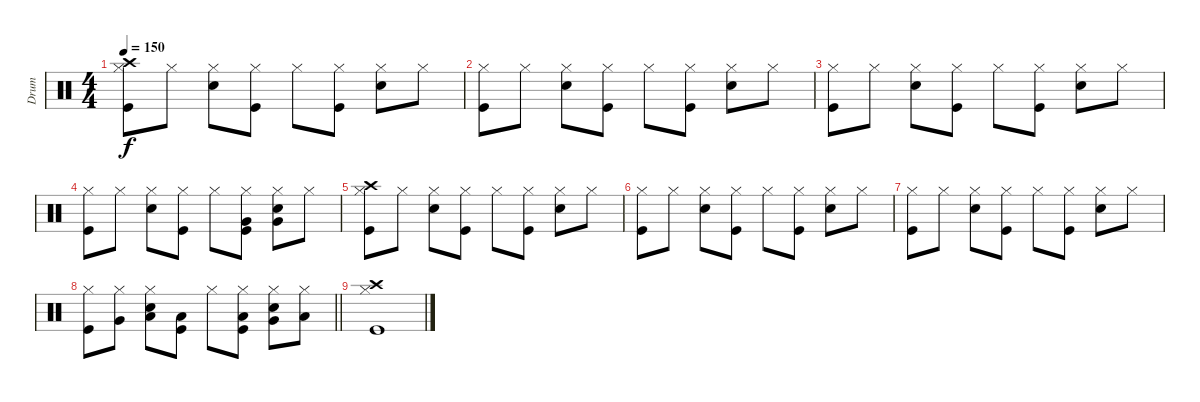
\track ("Drum" "Drum") {instrument percussion}
\staff {score}
\articulation defaults
\ts (4 4)
\tempo 150
\clef neutral
\ks c
("Kick (hit)" "Hi-Hat (closed)" "Crash high (hit)").8{dy f} "Hi-Hat (closed)".8 ("Snare (hit) 2" "Hi-Hat (closed)").8 ("Kick (hit)" "Hi-Hat (closed)").8 "Hi-Hat (closed)".8 ("Kick (hit)" "Hi-Hat (closed)").8 ("Snare (hit) 2" "Hi-Hat (closed)").8 "Hi-Hat (closed)".8 |
("Kick (hit)" "Hi-Hat (closed)").8 "Hi-Hat (closed)".8 ("Snare (hit) 2" "Hi-Hat (closed)").8 ("Kick (hit)" "Hi-Hat (closed)").8 "Hi-Hat (closed)".8 ("Kick (hit)" "Hi-Hat (closed)").8 ("Snare (hit) 2" "Hi-Hat (closed)").8 "Hi-Hat (closed)".8 |
("Kick (hit)" "Hi-Hat (closed)").8 "Hi-Hat (closed)".8 ("Snare (hit) 2" "Hi-Hat (closed)").8 ("Kick (hit)" "Hi-Hat (closed)").8 "Hi-Hat (closed)".8 ("Kick (hit)" "Hi-Hat (closed)").8 ("Snare (hit) 2" "Hi-Hat (closed)").8 "Hi-Hat (closed)".8 |
("Kick (hit)" "Hi-Hat (closed)").8 "Hi-Hat (closed)".8 ("Snare (hit) 2" "Hi-Hat (closed)").8 ("Kick (hit)" "Hi-Hat (closed)").8 "Hi-Hat (closed)".8 ("Kick (hit)" "Hi-Hat (closed)" "Very Low Tom (hit)").8 ("Snare (hit) 2" "Hi-Hat (closed)" "Very Low Tom (hit)").8 "Hi-Hat (closed)".8 |
("Kick (hit)" "Hi-Hat (closed)" "Crash high (hit)").8 "Hi-Hat (closed)".8 ("Snare (hit) 2" "Hi-Hat (closed)").8 ("Kick (hit)" "Hi-Hat (closed)").8 "Hi-Hat (closed)".8 ("Kick (hit)" "Hi-Hat (closed)").8 ("Snare (hit) 2" "Hi-Hat (closed)").8 "Hi-Hat (closed)".8 |
("Kick (hit)" "Hi-Hat (closed)").8 "Hi-Hat (closed)".8 ("Snare (hit) 2" "Hi-Hat (closed)").8 ("Kick (hit)" "Hi-Hat (closed)").8 "Hi-Hat (closed)".8 ("Kick (hit)" "Hi-Hat (closed)").8 ("Snare (hit) 2" "Hi-Hat (closed)").8 "Hi-Hat (closed)".8 |
("Kick (hit)" "Hi-Hat (closed)").8 "Hi-Hat (closed)".8 ("Snare (hit) 2" "Hi-Hat (closed)").8 ("Kick (hit)" "Hi-Hat (closed)").8 "Hi-Hat (closed)".8 ("Kick (hit)" "Hi-Hat (closed)").8 ("Snare (hit) 2" "Hi-Hat (closed)").8 "Hi-Hat (closed)".8 |
\barLineRight lightlight
("Kick (hit)" "Hi-Hat (closed)").8 ("Hi-Hat (closed)" "Very Low Tom (hit)").8 ("Snare (hit) 2" "Hi-Hat (closed)" "Low Tom (hit)").8 ("Kick (hit)" "Low Tom (hit)").8 "Hi-Hat (closed)".8 ("Kick (hit)" "Hi-Hat (closed)" "Low Tom (hit)").8 ("Snare (hit) 2" "Hi-Hat (closed)" "Very Low Tom (hit)").8 ("Hi-Hat (closed)" "Low Floor Tom (hit)").8 |
("Kick (hit)" "Hi-Hat (closed)" "Crash high (hit)").1
